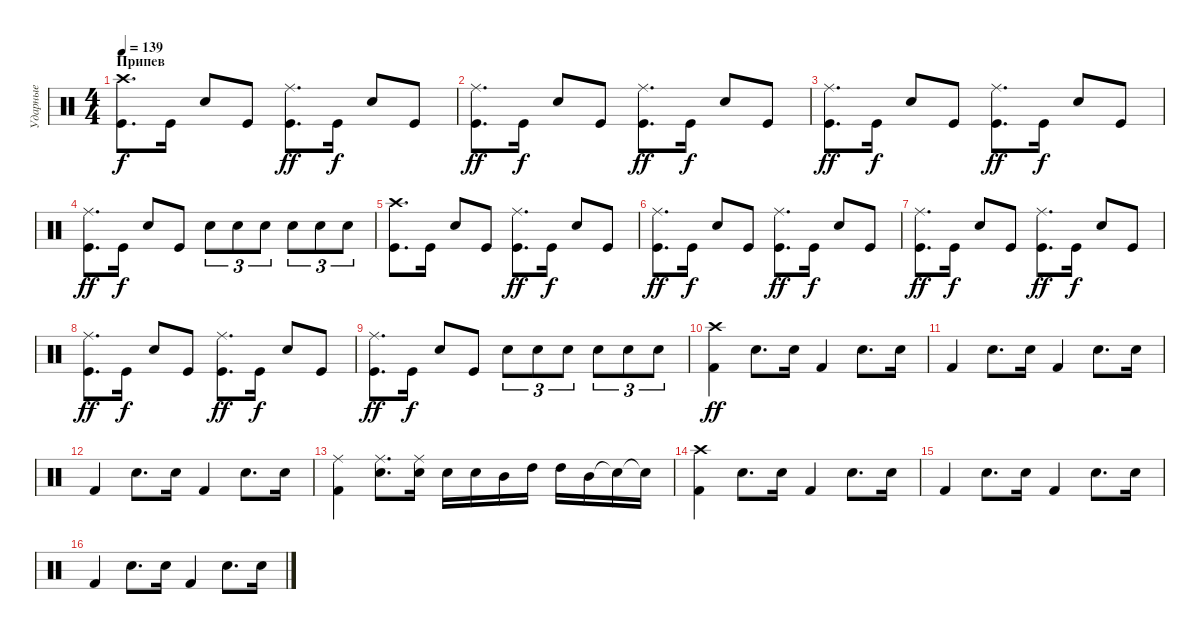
\track ("Ударные" "Ударные") {instrument percussion}
\staff {score}
\articulation defaults
\ts (4 4)
\section ("" "Припев")
\tempo 139
\clef neutral
\ks c
("Kick (hit)" "Crash high (hit)").8{d dy f} "Kick (hit)".16 "Snare (hit) 2".8 "Kick (hit)".8 ("Kick (hit)" "Ride (middle)").8{d dy ff} "Kick (hit)".16{dy f} "Snare (hit) 2".8 "Kick (hit)".8 |
("Kick (hit)" "Ride (middle)").8{d dy ff} "Kick (hit)".16{dy f} "Snare (hit) 2".8 "Kick (hit)".8 ("Kick (hit)" "Ride (middle)").8{d dy ff} "Kick (hit)".16{dy f} "Snare (hit) 2".8 "Kick (hit)".8 |
("Kick (hit)" "Ride (middle)").8{d dy ff} "Kick (hit)".16{dy f} "Snare (hit) 2".8 "Kick (hit)".8 ("Kick (hit)" "Ride (middle)").8{d dy ff} "Kick (hit)".16{dy f} "Snare (hit) 2".8 "Kick (hit)".8 |
("Kick (hit)" "Ride (middle)").8{d dy ff} "Kick (hit)".16{dy f} "Snare (hit) 2".8 "Kick (hit)".8 "Snare (hit) 2".8{tu (3 2)} "Snare (hit) 2".8{tu (3 2)} "Snare (hit) 2".8{tu (3 2)} "Snare (hit) 2".8{tu (3 2)} "Snare (hit) 2".8{tu (3 2)} "Snare (hit) 2".8{tu (3 2)} |
("Kick (hit)" "Crash high (hit)").8{d} "Kick (hit)".16 "Snare (hit) 2".8 "Kick (hit)".8 ("Kick (hit)" "Ride (middle)").8{d dy ff} "Kick (hit)".16{dy f} "Snare (hit) 2".8 "Kick (hit)".8 |
("Kick (hit)" "Ride (middle)").8{d dy ff} "Kick (hit)".16{dy f} "Snare (hit) 2".8 "Kick (hit)".8 ("Kick (hit)" "Ride (middle)").8{d dy ff} "Kick (hit)".16{dy f} "Snare (hit) 2".8 "Kick (hit)".8 |
("Kick (hit)" "Ride (middle)").8{d dy ff} "Kick (hit)".16{dy f} "Snare (hit) 2".8 "Kick (hit)".8 ("Kick (hit)" "Ride (middle)").8{d dy ff} "Kick (hit)".16{dy f} "Snare (hit) 2".8 "Kick (hit)".8 |
("Kick (hit)" "Ride (middle)").8{d dy ff} "Kick (hit)".16{dy f} "Snare (hit) 2".8 "Kick (hit)".8 ("Kick (hit)" "Ride (middle)").8{d dy ff} "Kick (hit)".16{dy f} "Snare (hit) 2".8 "Kick (hit)".8 |
("Kick (hit)" "Ride (middle)").8{d dy ff} "Kick (hit)".16{dy f} "Snare (hit) 2".8 "Kick (hit)".8 "Snare (hit) 2".8{tu (3 2)} "Snare (hit) 2".8{tu (3 2)} "Snare (hit) 2".8{tu (3 2)} "Snare (hit) 2".8{tu (3 2)} "Snare (hit) 2".8{tu (3 2)} "Snare (hit) 2".8{tu (3 2)} |
("Kick (hit) 2" "Crash high (hit)").4{dy ff} "Electric Snare (hit)".8{d} "Electric Snare (hit)".16 "Kick (hit) 2".4 "Electric Snare (hit)".8{d} "Electric Snare (hit)".16 |
"Kick (hit) 2".4 "Electric Snare (hit)".8{d} "Electric Snare (hit)".16 "Kick (hit) 2".4 "Electric Snare (hit)".8{d} "Electric Snare (hit)".16 |
"Kick (hit) 2".4 "Electric Snare (hit)".8{d} "Electric Snare (hit)".16 "Kick (hit) 2".4 "Electric Snare (hit)".8{d} "Electric Snare (hit)".16 |
("Kick (hit) 2" "Ride (middle)").4 ("Electric Snare (hit)" "Ride (middle)").8{d} ("Electric Snare (hit)" "Ride (middle)").16 "Electric Snare (hit)".16 "Electric Snare (hit)".16 "Mid Tom (hit)".16 "High Tom (hit)".16 "High Tom (hit)".16 "Mid Tom (hit)".16 "Snare (hit)"{t}.16 "Snare (hit)"{t}.16 |
("Kick (hit) 2" "Crash high (hit)").4 "Electric Snare (hit)".8{d} "Electric Snare (hit)".16 "Kick (hit) 2".4 "Electric Snare (hit)".8{d} "Electric Snare (hit)".16 |
"Kick (hit) 2".4 "Electric Snare (hit)".8{d} "Electric Snare (hit)".16 "Kick (hit) 2".4 "Electric Snare (hit)".8{d} "Electric Snare (hit)".16 |
"Kick (hit) 2".4 "Electric Snare (hit)".8{d} "Electric Snare (hit)".16 "Kick (hit) 2".4 "Electric Snare (hit)".8{d} "Electric Snare (hit)".16
